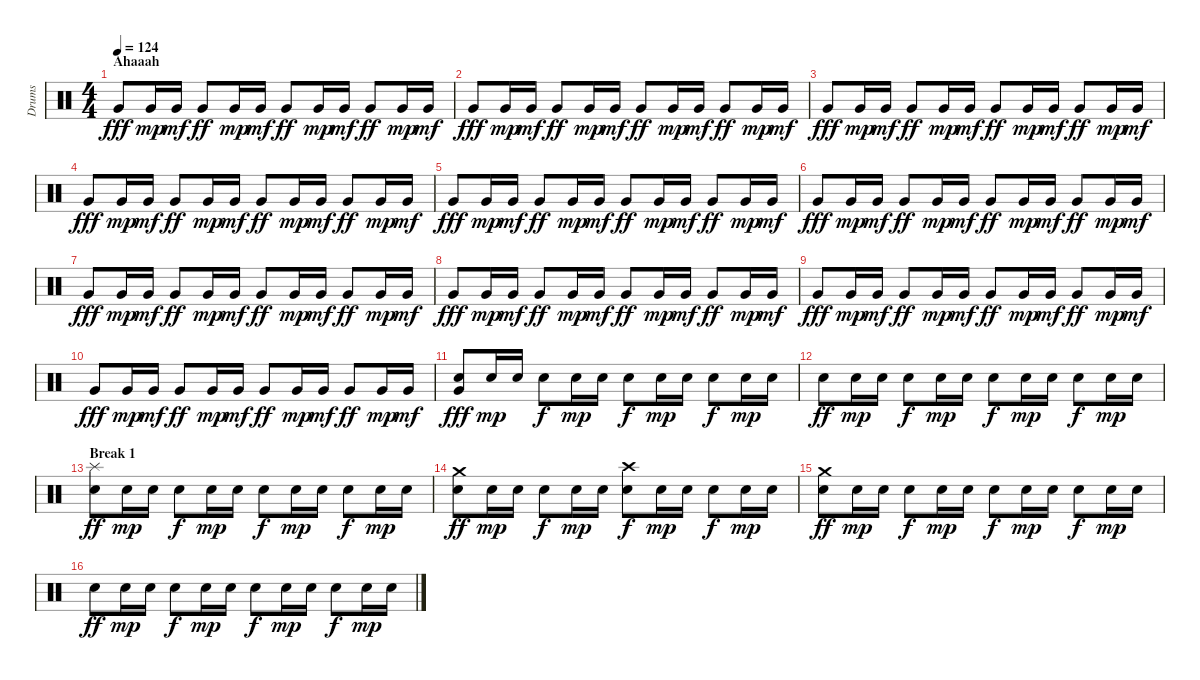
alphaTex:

\track ("Drums" "Drums") {instrument percussion}
\staff {score}
\articulation defaults
\ts (4 4)
\section ("" "Ahaaah")
\tempo 124
\clef neutral
\ks c "Very Low Tom (hit)".8{dy fff} "Very Low Tom (hit)".16{dy mp} "Very Low Tom (hit)".16{dy mf} "Very Low Tom (hit)".8{dy ff} "Very Low Tom (hit)".16{dy mp} "Very Low Tom (hit)".16{dy mf} "Very Low Tom (hit)".8{dy ff} "Very Low Tom (hit)".16{dy mp} "Very Low Tom (hit)".16{dy mf} "Very Low Tom (hit)".8{dy ff} "Very Low Tom (hit)".16{dy mp} "Very Low Tom (hit)".16{dy mf}
|
"Very Low Tom (hit)".8{dy fff} "Very Low Tom (hit)".16{dy mp} "Very Low Tom (hit)".16{dy mf} "Very Low Tom (hit)".8{dy ff} "Very Low Tom (hit)".16{dy mp} "Very Low Tom (hit)".16{dy mf} "Very Low Tom (hit)".8{dy ff} "Very Low Tom (hit)".16{dy mp} "Very Low Tom (hit)".16{dy mf} "Very Low Tom (hit)".8{dy ff} "Very Low Tom (hit)".16{dy mp} "Very Low Tom (hit)".16{dy mf} |
"Very Low Tom (hit)".8{dy fff} "Very Low Tom (hit)".16{dy mp} "Very Low Tom (hit)".16{dy mf} "Very Low Tom (hit)".8{dy ff} "Very Low Tom (hit)".16{dy mp} "Very Low Tom (hit)".16{dy mf} "Very Low Tom (hit)".8{dy ff} "Very Low Tom (hit)".16{dy mp} "Very Low Tom (hit)".16{dy mf} "Very Low Tom (hit)".8{dy ff} "Very Low Tom (hit)".16{dy mp} "Very Low Tom (hit)".16{dy mf} |
"Very Low Tom (hit)".8{dy fff} "Very Low Tom (hit)".16{dy mp} "Very Low Tom (hit)".16{dy mf} "Very Low Tom (hit)".8{dy ff} "Very Low Tom (hit)".16{dy mp} "Very Low Tom (hit)".16{dy mf} "Very Low Tom (hit)".8{dy ff} "Very Low Tom (hit)".16{dy mp} "Very Low Tom (hit)".16{dy mf} "Very Low Tom (hit)".8{dy ff} "Very Low Tom (hit)".16{dy mp} "Very Low Tom (hit)".16{dy mf} |
"Very Low Tom (hit)".8{dy fff} "Very Low Tom (hit)".16{dy mp} "Very Low Tom (hit)".16{dy mf} "Very Low Tom (hit)".8{dy ff} "Very Low Tom (hit)".16{dy mp} "Very Low Tom (hit)".16{dy mf} "Very Low Tom (hit)".8{dy ff} "Very Low Tom (hit)".16{dy mp} "Very Low Tom (hit)".16{dy mf} "Very Low Tom (hit)".8{dy ff} "Very Low Tom (hit)".16{dy mp} "Very Low Tom (hit)".16{dy mf} |
"Very Low Tom (hit)".8{dy fff} "Very Low Tom (hit)".16{dy mp} "Very Low Tom (hit)".16{dy mf} "Very Low Tom (hit)".8{dy ff} "Very Low Tom (hit)".16{dy mp} "Very Low Tom (hit)".16{dy mf} "Very Low Tom (hit)".8{dy ff} "Very Low Tom (hit)".16{dy mp} "Very Low Tom (hit)".16{dy mf} "Very Low Tom (hit)".8{dy ff} "Very Low Tom (hit)".16{dy mp} "Very Low Tom (hit)".16{dy mf} |
"Very Low Tom (hit)".8{dy fff} "Very Low Tom (hit)".16{dy mp} "Very Low Tom (hit)".16{dy mf} "Very Low Tom (hit)".8{dy ff} "Very Low Tom (hit)".16{dy mp} "Very Low Tom (hit)".16{dy mf} "Very Low Tom (hit)".8{dy ff} "Very Low Tom (hit)".16{dy mp} "Very Low Tom (hit)".16{dy mf} "Very Low Tom (hit)".8{dy ff} "Very Low Tom (hit)".16{dy mp} "Very Low Tom (hit)".16{dy mf} |
"Very Low Tom (hit)".8{dy fff} "Very Low Tom (hit)".16{dy mp} "Very Low Tom (hit)".16{dy mf} "Very Low Tom (hit)".8{dy ff} "Very Low Tom (hit)".16{dy mp} "Very Low Tom (hit)".16{dy mf} "Very Low Tom (hit)".8{dy ff} "Very Low Tom (hit)".16{dy mp} "Very Low Tom (hit)".16{dy mf} "Very Low Tom (hit)".8{dy ff} "Very Low Tom (hit)".16{dy mp} "Very Low Tom (hit)".16{dy mf} |
"Very Low Tom (hit)".8{dy fff} "Very Low Tom (hit)".16{dy mp} "Very Low Tom (hit)".16{dy mf} "Very Low Tom (hit)".8{dy ff} "Very Low Tom (hit)".16{dy mp} "Very Low Tom (hit)".16{dy mf} "Very Low Tom (hit)".8{dy ff} "Very Low Tom (hit)".16{dy mp} "Very Low Tom (hit)".16{dy mf} "Very Low Tom (hit)".8{dy ff} "Very Low Tom (hit)".16{dy mp} "Very Low Tom (hit)".16{dy mf} |
"Very Low Tom (hit)".8{dy fff} "Very Low Tom (hit)".16{dy mp} "Very Low Tom (hit)".16{dy mf} "Very Low Tom (hit)".8{dy ff} "Very Low Tom (hit)".16{dy mp} "Very Low Tom (hit)".16{dy mf} "Very Low Tom (hit)".8{dy ff} "Very Low Tom (hit)".16{dy mp} "Very Low Tom (hit)".16{dy mf} "Very Low Tom (hit)".8{dy ff} "Very Low Tom (hit)".16{dy mp} "Very Low Tom (hit)".16{dy mf} |
("Very Low Tom (hit)" "Snare (hit) 2").8{dy fff} "Snare (hit) 2".16{dy mp} "Snare (hit) 2".16 "Snare (hit) 2".8{dy f} "Snare (hit) 2".16{dy mp} "Snare (hit) 2".16 "Snare (hit) 2".8{dy f} "Snare (hit) 2".16{dy mp} "Snare (hit) 2".16 "Snare (hit) 2".8{dy f} "Snare (hit) 2".16{dy mp} "Snare (hit) 2".16 |
"Snare (hit) 2".8{dy ff} "Snare (hit) 2".16{dy mp} "Snare (hit) 2".16 "Snare (hit) 2".8{dy f} "Snare (hit) 2".16{dy mp} "Snare (hit) 2".16 "Snare (hit) 2".8{dy f} "Snare (hit) 2".16{dy mp} "Snare (hit) 2".16 "Snare (hit) 2".8{dy f} "Snare (hit) 2".16{dy mp} "Snare (hit) 2".16 |
\section ("" "Break 1")
("Splash (hit)" "Snare (hit) 2").8{dy ff} "Snare (hit) 2".16{dy mp} "Snare (hit) 2".16 "Snare (hit) 2".8{dy f} "Snare (hit) 2".16{dy mp} "Snare (hit) 2".16 "Snare (hit) 2".8{dy f} "Snare (hit) 2".16{dy mp} "Snare (hit) 2".16 "Snare (hit) 2".8{dy f} "Snare (hit) 2".16{dy mp} "Snare (hit) 2".16 |
("Crash medium (hit)" "Snare (hit) 2").8{dy ff} "Snare (hit) 2".16{dy mp} "Snare (hit) 2".16 "Snare (hit) 2".8{dy f} "Snare (hit) 2".16{dy mp} "Snare (hit) 2".16 ("Crash high (hit)" "Snare (hit) 2").8{dy f} "Snare (hit) 2".16{dy mp} "Snare (hit) 2".16 "Snare (hit) 2".8{dy f} "Snare (hit) 2".16{dy mp} "Snare (hit) 2".16 |
("Crash medium (hit)" "Snare (hit) 2").8{dy ff} "Snare (hit) 2".16{dy mp} "Snare (hit) 2".16 "Snare (hit) 2".8{dy f} "Snare (hit) 2".16{dy mp} "Snare (hit) 2".16 "Snare (hit) 2".8{dy f} "Snare (hit) 2".16{dy mp} "Snare (hit) 2".16 "Snare (hit) 2".8{dy f} "Snare (hit) 2".16{dy mp} "Snare (hit) 2".16 |
"Snare (hit) 2".8{dy ff} "Snare (hit) 2".16{dy mp} "Snare (hit) 2".16 "Snare (hit) 2".8{dy f} "Snare (hit) 2".16{dy mp} "Snare (hit) 2".16 "Snare (hit) 2".8{dy f} "Snare (hit) 2".16{dy mp} "Snare (hit) 2".16 "Snare (hit) 2".8{dy f} "Snare (hit) 2".16{dy mp} "Snare (hit) 2".16
